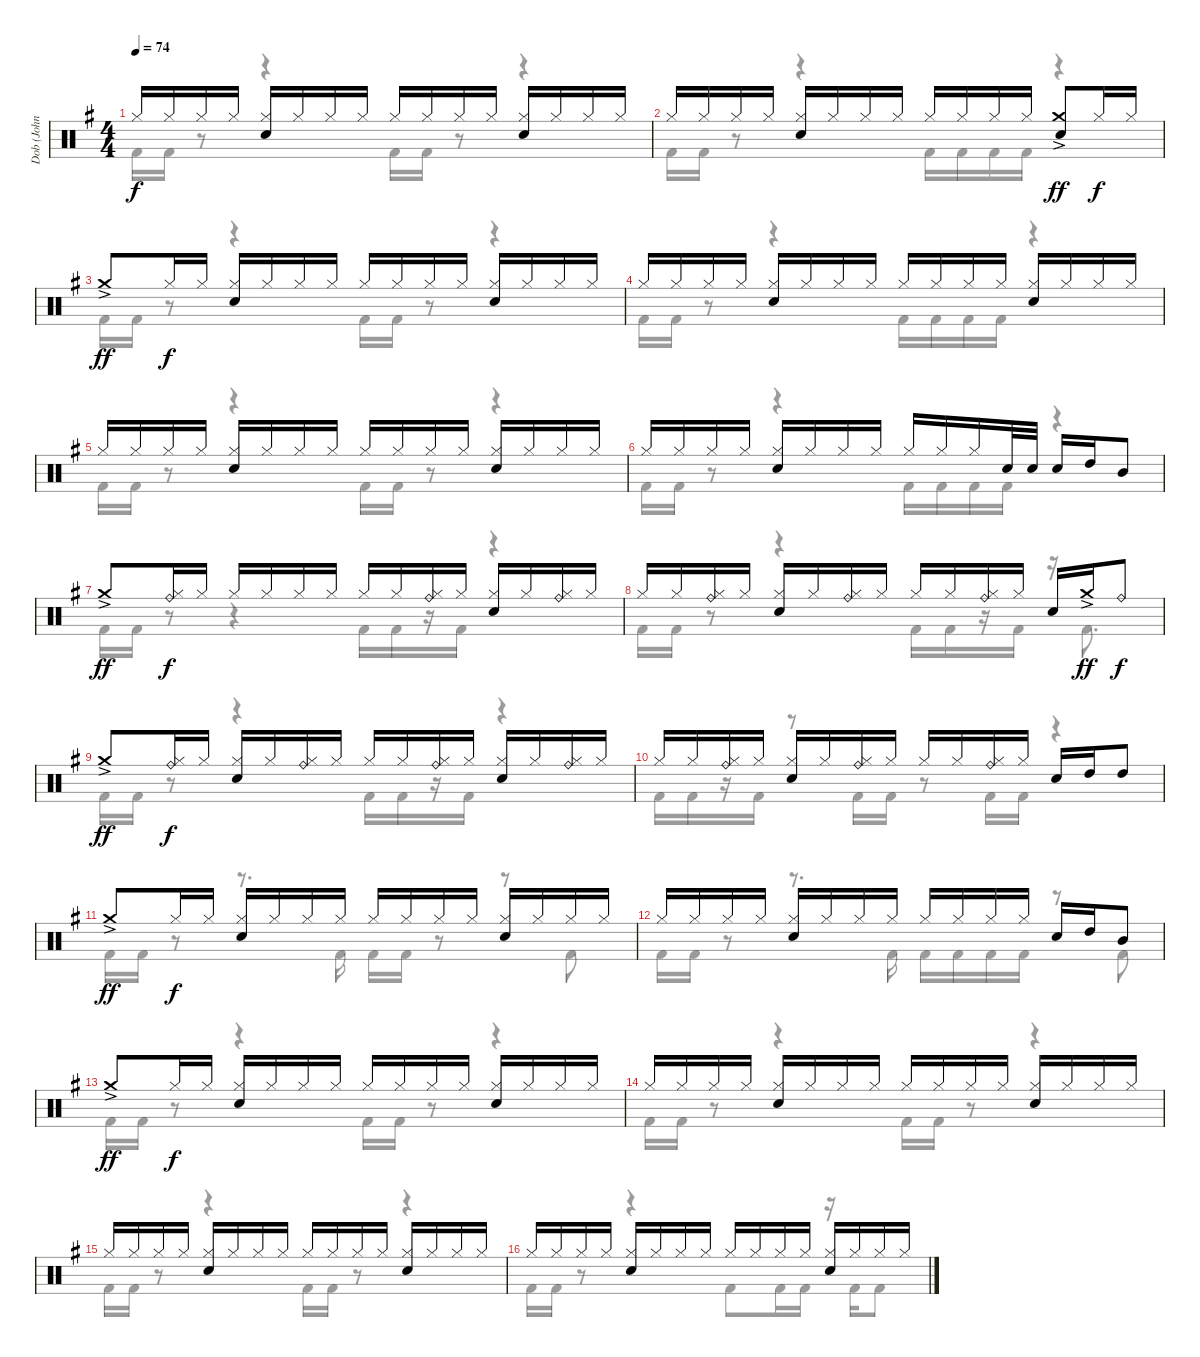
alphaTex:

\track ("Dob (John O'Reilly)" "Dob (John ") {instrument percussion}
\staff {score}
\articulation defaults
\voice
\ts (4 4)
\tempo 74
\clef neutral
\ks g "Hi-Hat (closed)".16{dy f} "Hi-Hat (closed)".16 "Hi-Hat (closed)".16 "Hi-Hat (closed)".16
("Hi-Hat (closed)" "Electric Snare (hit)").16 "Hi-Hat (closed)".16 "Hi-Hat (closed)".16 "Hi-Hat (closed)".16 "Hi-Hat (closed)".16 "Hi-Hat (closed)".16 "Hi-Hat (closed)".16 "Hi-Hat (closed)".16 ("Hi-Hat (closed)" "Electric Snare (hit)").16 "Hi-Hat (closed)".16 "Hi-Hat (closed)".16 "Hi-Hat (closed)".16 |
"Hi-Hat (closed)".16 "Hi-Hat (closed)".16 "Hi-Hat (closed)".16 "Hi-Hat (closed)".16 ("Hi-Hat (closed)" "Electric Snare (hit)").16 "Hi-Hat (closed)".16 "Hi-Hat (closed)".16 "Hi-Hat (closed)".16 "Hi-Hat (closed)".16 "Hi-Hat (closed)".16 "Hi-Hat (closed)".16 "Hi-Hat (closed)".16 ("Crash medium (hit)"{ac} "Electric Snare (hit)").8{dy ff} "Hi-Hat (closed)".16{dy f} "Hi-Hat (closed)".16 |
"Crash medium (hit)"{ac}.8{dy ff} "Hi-Hat (closed)".16{dy f} "Hi-Hat (closed)".16 ("Hi-Hat (closed)" "Electric Snare (hit)").16 "Hi-Hat (closed)".16 "Hi-Hat (closed)".16 "Hi-Hat (closed)".16 "Hi-Hat (closed)".16 "Hi-Hat (closed)".16 "Hi-Hat (closed)".16 "Hi-Hat (closed)".16 ("Hi-Hat (closed)" "Electric Snare (hit)").16 "Hi-Hat (closed)".16 "Hi-Hat (closed)".16 "Hi-Hat (closed)".16 |
"Hi-Hat (closed)".16 "Hi-Hat (closed)".16 "Hi-Hat (closed)".16 "Hi-Hat (closed)".16 ("Hi-Hat (closed)" "Electric Snare (hit)").16 "Hi-Hat (closed)".16 "Hi-Hat (closed)".16 "Hi-Hat (closed)".16 "Hi-Hat (closed)".16 "Hi-Hat (closed)".16 "Hi-Hat (closed)".16 "Hi-Hat (closed)".16 ("Hi-Hat (closed)" "Electric Snare (hit)").16 "Hi-Hat (closed)".16 "Hi-Hat (closed)".16 "Hi-Hat (closed)".16 |
"Hi-Hat (closed)".16 "Hi-Hat (closed)".16 "Hi-Hat (closed)".16 "Hi-Hat (closed)".16 ("Hi-Hat (closed)" "Electric Snare (hit)").16 "Hi-Hat (closed)".16 "Hi-Hat (closed)".16 "Hi-Hat (closed)".16 "Hi-Hat (closed)".16 "Hi-Hat (closed)".16 "Hi-Hat (closed)".16 "Hi-Hat (closed)".16 ("Hi-Hat (closed)" "Electric Snare (hit)").16 "Hi-Hat (closed)".16 "Hi-Hat (closed)".16 "Hi-Hat (closed)".16 |
"Hi-Hat (closed)".16 "Hi-Hat (closed)".16 "Hi-Hat (closed)".16 "Hi-Hat (closed)".16 ("Hi-Hat (closed)" "Electric Snare (hit)").16 "Hi-Hat (closed)".16 "Hi-Hat (closed)".16 "Hi-Hat (closed)".16 "Hi-Hat (closed)".16 "Hi-Hat (closed)".16 "Hi-Hat (closed)".16 "Electric Snare (hit)".32 "Electric Snare (hit)".32 "Electric Snare (hit)".16 "High Tom (hit)".16 "Mid Tom (hit)".8 |
"Crash medium (hit)"{ac}.8{dy ff} ("Ride (bell)" "Hi-Hat (closed)").16{dy f} "Hi-Hat (closed)".16 "Hi-Hat (closed)".16 "Hi-Hat (closed)".16 "Hi-Hat (closed)".16 "Hi-Hat (closed)".16 "Hi-Hat (closed)".16 "Hi-Hat (closed)".16 ("Ride (bell)" "Hi-Hat (closed)").16 "Hi-Hat (closed)".16 ("Hi-Hat (closed)" "Electric Snare (hit)").16 "Hi-Hat (closed)".16 ("Ride (bell)" "Hi-Hat (closed)").16 "Hi-Hat (closed)".16 |
"Hi-Hat (closed)".16 "Hi-Hat (closed)".16 ("Ride (bell)" "Hi-Hat (closed)").16 "Hi-Hat (closed)".16 ("Hi-Hat (closed)" "Electric Snare (hit)").16 "Hi-Hat (closed)".16 ("Ride (bell)" "Hi-Hat (closed)").16 "Hi-Hat (closed)".16 "Hi-Hat (closed)".16 "Hi-Hat (closed)".16 ("Ride (bell)" "Hi-Hat (closed)").16 "Hi-Hat (closed)".16 "Electric Snare (hit)".16 "Crash medium (hit)"{ac}.16{dy ff} "Ride (bell)".8{dy f} |
"Crash medium (hit)"{ac}.8{dy ff} ("Ride (bell)" "Hi-Hat (closed)").16{dy f} "Hi-Hat (closed)".16 ("Hi-Hat (closed)" "Electric Snare (hit)").16 "Hi-Hat (closed)".16 ("Ride (bell)" "Hi-Hat (closed)").16 "Hi-Hat (closed)".16 "Hi-Hat (closed)".16 "Hi-Hat (closed)".16 ("Ride (bell)" "Hi-Hat (closed)").16 "Hi-Hat (closed)".16 ("Hi-Hat (closed)" "Electric Snare (hit)").16 "Hi-Hat (closed)".16 ("Ride (bell)" "Hi-Hat (closed)").16 "Hi-Hat (closed)".16 |
"Hi-Hat (closed)".16 "Hi-Hat (closed)".16 ("Ride (bell)" "Hi-Hat (closed)").16 "Hi-Hat (closed)".16 ("Hi-Hat (closed)" "Electric Snare (hit)").16 "Hi-Hat (closed)".16 ("Ride (bell)" "Hi-Hat (closed)").16 "Hi-Hat (closed)".16 "Hi-Hat (closed)".16 "Hi-Hat (closed)".16 ("Ride (bell)" "Hi-Hat (closed)").16 "Hi-Hat (closed)".16 "Electric Snare (hit)".16 "High Tom (hit)".16 "High Tom (hit)".8 |
"Crash medium (hit)"{ac}.8{dy ff} "Hi-Hat (closed)".16{dy f} "Hi-Hat (closed)".16 ("Hi-Hat (closed)" "Electric Snare (hit)").16 "Hi-Hat (closed)".16 "Hi-Hat (closed)".16 "Hi-Hat (closed)".16 "Hi-Hat (closed)".16 "Hi-Hat (closed)".16 "Hi-Hat (closed)".16 "Hi-Hat (closed)".16 ("Hi-Hat (closed)" "Electric Snare (hit)").16 "Hi-Hat (closed)".16 "Hi-Hat (closed)".16 "Hi-Hat (closed)".16 |
"Hi-Hat (closed)".16 "Hi-Hat (closed)".16 "Hi-Hat (closed)".16 "Hi-Hat (closed)".16 ("Hi-Hat (closed)" "Electric Snare (hit)").16 "Hi-Hat (closed)".16 "Hi-Hat (closed)".16 "Hi-Hat (closed)".16 "Hi-Hat (closed)".16 "Hi-Hat (closed)".16 "Hi-Hat (closed)".16 "Hi-Hat (closed)".16 "Electric Snare (hit)".16 "High Tom (hit)".16 "Mid Tom (hit)".8 |
"Crash medium (hit)"{ac}.8{dy ff} "Hi-Hat (closed)".16{dy f} "Hi-Hat (closed)".16 ("Hi-Hat (closed)" "Electric Snare (hit)").16 "Hi-Hat (closed)".16 "Hi-Hat (closed)".16 "Hi-Hat (closed)".16 "Hi-Hat (closed)".16 "Hi-Hat (closed)".16 "Hi-Hat (closed)".16 "Hi-Hat (closed)".16 ("Hi-Hat (closed)" "Electric Snare (hit)").16 "Hi-Hat (closed)".16 "Hi-Hat (closed)".16 "Hi-Hat (closed)".16 |
"Hi-Hat (closed)".16 "Hi-Hat (closed)".16 "Hi-Hat (closed)".16 "Hi-Hat (closed)".16 ("Hi-Hat (closed)" "Electric Snare (hit)").16 "Hi-Hat (closed)".16 "Hi-Hat (closed)".16 "Hi-Hat (closed)".16 "Hi-Hat (closed)".16 "Hi-Hat (closed)".16 "Hi-Hat (closed)".16 "Hi-Hat (closed)".16 ("Hi-Hat (closed)" "Electric Snare (hit)").16 "Hi-Hat (closed)".16 "Hi-Hat (closed)".16 "Hi-Hat (closed)".16 |
"Hi-Hat (closed)".16 "Hi-Hat (closed)".16 "Hi-Hat (closed)".16 "Hi-Hat (closed)".16 ("Hi-Hat (closed)" "Electric Snare (hit)").16 "Hi-Hat (closed)".16 "Hi-Hat (closed)".16 "Hi-Hat (closed)".16 "Hi-Hat (closed)".16 "Hi-Hat (closed)".16 "Hi-Hat (closed)".16 "Hi-Hat (closed)".16 ("Hi-Hat (closed)" "Electric Snare (hit)").16 "Hi-Hat (closed)".16 "Hi-Hat (closed)".16 "Hi-Hat (closed)".16 |
"Hi-Hat (closed)".16 "Hi-Hat (closed)".16 "Hi-Hat (closed)".16 "Hi-Hat (closed)".16 ("Hi-Hat (closed)" "Electric Snare (hit)").16 "Hi-Hat (closed)".16 "Hi-Hat (closed)".16 "Hi-Hat (closed)".16 "Hi-Hat (closed)".16 "Hi-Hat (closed)".16 "Hi-Hat (closed)".16 "Hi-Hat (closed)".16 ("Hi-Hat (closed)" "Electric Snare (hit)").16 "Hi-Hat (closed)".16 "Hi-Hat (closed)".16 "Hi-Hat (closed)".16
\voice
\clef neutral
\ottava regular
\simile none
\ks g "Kick (hit) 2".16{dy f} "Kick (hit) 2".16
r.8 r.4 "Kick (hit) 2".16 "Kick (hit) 2".16 r.8 r.4 |
"Kick (hit) 2".16 "Kick (hit) 2".16 r.8 r.4 "Kick (hit) 2".16 "Kick (hit) 2".16 "Kick (hit) 2".16 "Kick (hit) 2".16 r.4 |
"Kick (hit) 2".16 "Kick (hit) 2".16 r.8 r.4 "Kick (hit) 2".16 "Kick (hit) 2".16 r.8 r.4 |
"Kick (hit) 2".16 "Kick (hit) 2".16 r.8 r.4 "Kick (hit) 2".16 "Kick (hit) 2".16 "Kick (hit) 2".16 "Kick (hit) 2".16 r.4 |
"Kick (hit) 2".16 "Kick (hit) 2".16 r.8 r.4 "Kick (hit) 2".16 "Kick (hit) 2".16 r.8 r.4 |
"Kick (hit) 2".16 "Kick (hit) 2".16 r.8 r.4 "Kick (hit) 2".16 "Kick (hit) 2".16 "Kick (hit) 2".16 "Kick (hit) 2".16 r.4 |
"Kick (hit) 2".16 "Kick (hit) 2".16 r.8 r.4 "Kick (hit) 2".16 "Kick (hit) 2".16 r.16 "Kick (hit) 2".16 r.4 |
"Kick (hit) 2".16 "Kick (hit) 2".16 r.8 r.4 "Kick (hit) 2".16 "Kick (hit) 2".16 r.16 "Kick (hit) 2".16 r.16 "Kick (hit) 2".8{d} |
"Kick (hit) 2".16 "Kick (hit) 2".16 r.8 r.4 "Kick (hit) 2".16 "Kick (hit) 2".16 r.16 "Kick (hit) 2".16 r.4 |
"Kick (hit) 2".16 "Kick (hit) 2".16 r.16 "Kick (hit) 2".16 r.8 "Kick (hit) 2".16 "Kick (hit) 2".16 r.8 "Kick (hit) 2".16 "Kick (hit) 2".16 r.4 |
"Kick (hit) 2".16 "Kick (hit) 2".16 r.8 r.8{d} "Kick (hit) 2".16 "Kick (hit) 2".16 "Kick (hit) 2".16 r.8 r.8 "Kick (hit) 2".8 |
"Kick (hit) 2".16 "Kick (hit) 2".16 r.8 r.8{d} "Kick (hit) 2".16 "Kick (hit) 2".16 "Kick (hit) 2".16 "Kick (hit) 2".16 "Kick (hit) 2".16 r.8 "Kick (hit) 2".8 |
"Kick (hit) 2".16 "Kick (hit) 2".16 r.8 r.4 "Kick (hit) 2".16 "Kick (hit) 2".16 r.8 r.4 |
"Kick (hit) 2".16 "Kick (hit) 2".16 r.8 r.4 "Kick (hit) 2".16 "Kick (hit) 2".16 r.8 r.4 |
"Kick (hit) 2".16 "Kick (hit) 2".16 r.8 r.4 "Kick (hit) 2".16 "Kick (hit) 2".16 r.8 r.4 |
"Kick (hit) 2".16 "Kick (hit) 2".16 r.8 r.4 "Kick (hit) 2".8 "Kick (hit) 2".16 "Kick (hit) 2".16 r.16 "Kick (hit) 2".16 "Kick (hit) 2".8
